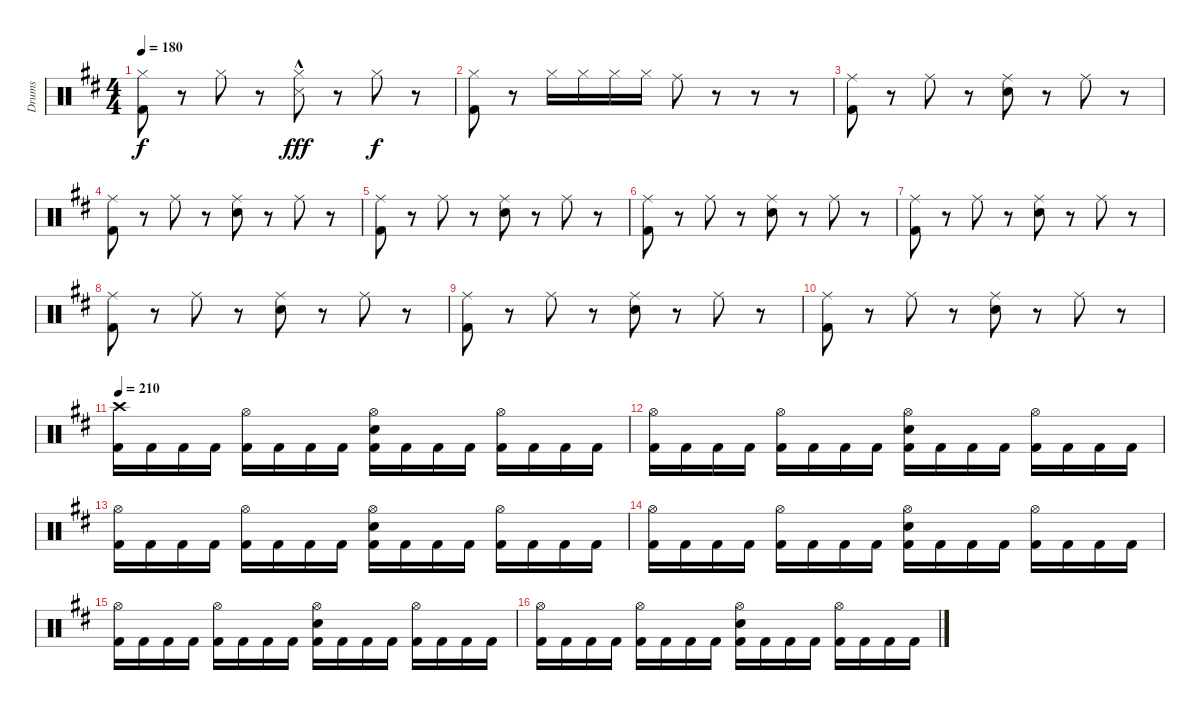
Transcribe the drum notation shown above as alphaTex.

\track ("Drums" "Drums") {instrument percussion}
\staff {score}
\articulation defaults
\ts (4 4)
\tempo 180
\clef neutral
\ks bminor
("Kick (hit) 2" "Hi-Hat (closed)").8{dy f} r.8 "Hi-Hat (closed)".8 r.8 ("Snare (side stick) 3"{hac} "Hi-Hat (closed)").8{dy fff} r.8 "Hi-Hat (closed)".8{dy f} r.8 |
("Kick (hit) 2" "Hi-Hat (closed)").8 r.8 "Hi-Hat (closed)".16 "Hi-Hat (closed)".16 "Hi-Hat (closed)".16 "Hi-Hat (closed)".16 "Ride (middle)".8 r.8 r.8 r.8 |
("Kick (hit) 2" "Ride (middle)").8 r.8 "Ride (middle)".8 r.8 ("Electric Snare (hit)" "Ride (middle)").8 r.8 "Ride (middle)".8 r.8 |
("Kick (hit) 2" "Ride (middle)").8 r.8 "Ride (middle)".8 r.8 ("Electric Snare (hit)" "Ride (middle)").8 r.8 "Ride (middle)".8 r.8 |
("Kick (hit) 2" "Ride (middle)").8 r.8 "Ride (middle)".8 r.8 ("Electric Snare (hit)" "Ride (middle)").8 r.8 "Ride (middle)".8 r.8 |
("Kick (hit) 2" "Ride (middle)").8 r.8 "Ride (middle)".8 r.8 ("Electric Snare (hit)" "Ride (middle)").8 r.8 "Ride (middle)".8 r.8 |
("Kick (hit) 2" "Ride (middle)").8 r.8 "Ride (middle)".8 r.8 ("Electric Snare (hit)" "Ride (middle)").8 r.8 "Ride (middle)".8 r.8 |
("Kick (hit) 2" "Ride (middle)").8 r.8 "Ride (middle)".8 r.8 ("Electric Snare (hit)" "Ride (middle)").8 r.8 "Ride (middle)".8 r.8 |
("Kick (hit) 2" "Ride (middle)").8 r.8 "Ride (middle)".8 r.8 ("Electric Snare (hit)" "Ride (middle)").8 r.8 "Ride (middle)".8 r.8 |
("Kick (hit) 2" "Ride (middle)").8 r.8 "Ride (middle)".8 r.8 ("Electric Snare (hit)" "Ride (middle)").8 r.8 "Ride (middle)".8 r.8 |
\tempo 210
("Kick (hit) 2" "Crash high (hit)").16 "Kick (hit) 2".16 "Kick (hit) 2".16 "Kick (hit) 2".16 ("Kick (hit) 2" "Hi-Hat (open)").16 "Kick (hit) 2".16 "Kick (hit) 2".16 "Kick (hit) 2".16 ("Kick (hit) 2" "Electric Snare (hit)" "Hi-Hat (open)").16 "Kick (hit) 2".16 "Kick (hit) 2".16 "Kick (hit) 2".16 ("Kick (hit) 2" "Hi-Hat (open)").16 "Kick (hit) 2".16 "Kick (hit) 2".16 "Kick (hit) 2".16 |
("Kick (hit) 2" "Hi-Hat (open)").16 "Kick (hit) 2".16 "Kick (hit) 2".16 "Kick (hit) 2".16 ("Kick (hit) 2" "Hi-Hat (open)").16 "Kick (hit) 2".16 "Kick (hit) 2".16 "Kick (hit) 2".16 ("Kick (hit) 2" "Electric Snare (hit)" "Hi-Hat (open)").16 "Kick (hit) 2".16 "Kick (hit) 2".16 "Kick (hit) 2".16 ("Kick (hit) 2" "Hi-Hat (open)").16 "Kick (hit) 2".16 "Kick (hit) 2".16 "Kick (hit) 2".16 |
("Kick (hit) 2" "Hi-Hat (open)").16 "Kick (hit) 2".16 "Kick (hit) 2".16 "Kick (hit) 2".16 ("Kick (hit) 2" "Hi-Hat (open)").16 "Kick (hit) 2".16 "Kick (hit) 2".16 "Kick (hit) 2".16 ("Kick (hit) 2" "Electric Snare (hit)" "Hi-Hat (open)").16 "Kick (hit) 2".16 "Kick (hit) 2".16 "Kick (hit) 2".16 ("Kick (hit) 2" "Hi-Hat (open)").16 "Kick (hit) 2".16 "Kick (hit) 2".16 "Kick (hit) 2".16 |
("Kick (hit) 2" "Hi-Hat (open)").16 "Kick (hit) 2".16 "Kick (hit) 2".16 "Kick (hit) 2".16 ("Kick (hit) 2" "Hi-Hat (open)").16 "Kick (hit) 2".16 "Kick (hit) 2".16 "Kick (hit) 2".16 ("Kick (hit) 2" "Electric Snare (hit)" "Hi-Hat (open)").16 "Kick (hit) 2".16 "Kick (hit) 2".16 "Kick (hit) 2".16 ("Kick (hit) 2" "Hi-Hat (open)").16 "Kick (hit) 2".16 "Kick (hit) 2".16 "Kick (hit) 2".16 |
("Kick (hit) 2" "Hi-Hat (open)").16 "Kick (hit) 2".16 "Kick (hit) 2".16 "Kick (hit) 2".16 ("Kick (hit) 2" "Hi-Hat (open)").16 "Kick (hit) 2".16 "Kick (hit) 2".16 "Kick (hit) 2".16 ("Kick (hit) 2" "Electric Snare (hit)" "Hi-Hat (open)").16 "Kick (hit) 2".16 "Kick (hit) 2".16 "Kick (hit) 2".16 ("Kick (hit) 2" "Hi-Hat (open)").16 "Kick (hit) 2".16 "Kick (hit) 2".16 "Kick (hit) 2".16 |
("Kick (hit) 2" "Hi-Hat (open)").16 "Kick (hit) 2".16 "Kick (hit) 2".16 "Kick (hit) 2".16 ("Kick (hit) 2" "Hi-Hat (open)").16 "Kick (hit) 2".16 "Kick (hit) 2".16 "Kick (hit) 2".16 ("Kick (hit) 2" "Electric Snare (hit)" "Hi-Hat (open)").16 "Kick (hit) 2".16 "Kick (hit) 2".16 "Kick (hit) 2".16 ("Kick (hit) 2" "Hi-Hat (open)").16 "Kick (hit) 2".16 "Kick (hit) 2".16 "Kick (hit) 2".16
